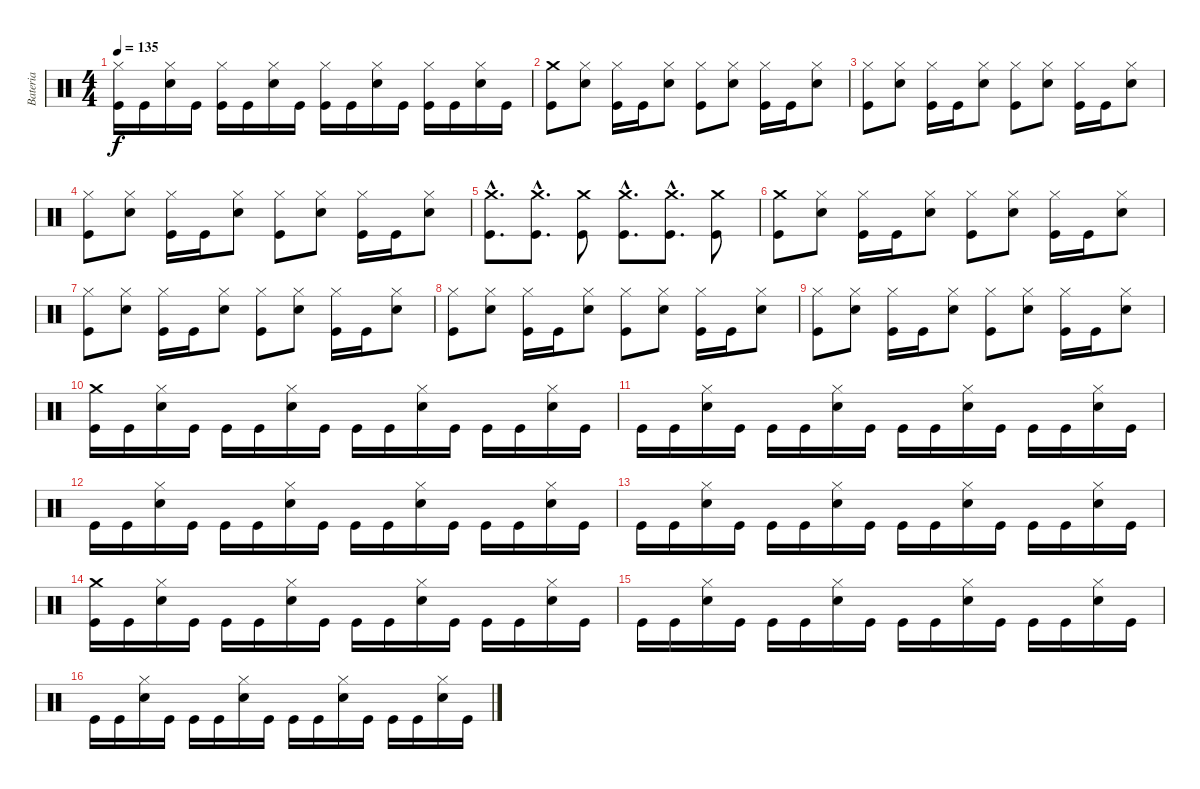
\track ("Bateria" "Bateria") {instrument percussion}
\staff {score}
\articulation defaults
\ts (4 4)
\tempo 135
\clef neutral
\ks c
("Kick (hit)" "Hi-Hat (closed)").16{dy f} "Kick (hit)".16 ("Snare (hit) 2" "Hi-Hat (closed)").16 "Kick (hit)".16 ("Kick (hit)" "Hi-Hat (closed)").16 "Kick (hit)".16 ("Snare (hit) 2" "Hi-Hat (closed)").16 "Kick (hit)".16 ("Kick (hit)" "Hi-Hat (closed)").16 "Kick (hit)".16 ("Snare (hit) 2" "Hi-Hat (closed)").16 "Kick (hit)".16 ("Kick (hit)" "Hi-Hat (closed)").16 "Kick (hit)".16 ("Snare (hit) 2" "Hi-Hat (closed)").16 "Kick (hit)".16 |
("Kick (hit)" "Crash medium (hit)").8 ("Snare (hit) 2" "Hi-Hat (closed)").8 ("Kick (hit)" "Hi-Hat (closed)").16 "Kick (hit)".16 ("Snare (hit) 2" "Hi-Hat (closed)").8 ("Kick (hit)" "Hi-Hat (closed)").8 ("Snare (hit) 2" "Hi-Hat (closed)").8 ("Kick (hit)" "Hi-Hat (closed)").16 "Kick (hit)".16 ("Snare (hit) 2" "Hi-Hat (closed)").8 |
("Kick (hit)" "Hi-Hat (closed)").8 ("Snare (hit) 2" "Hi-Hat (closed)").8 ("Kick (hit)" "Hi-Hat (closed)").16 "Kick (hit)".16 ("Snare (hit) 2" "Hi-Hat (closed)").8 ("Kick (hit)" "Hi-Hat (closed)").8 ("Snare (hit) 2" "Hi-Hat (closed)").8 ("Kick (hit)" "Hi-Hat (closed)").16 "Kick (hit)".16 ("Snare (hit) 2" "Hi-Hat (closed)").8 |
("Kick (hit)" "Hi-Hat (closed)").8 ("Snare (hit) 2" "Hi-Hat (closed)").8 ("Kick (hit)" "Hi-Hat (closed)").16 "Kick (hit)".16 ("Snare (hit) 2" "Hi-Hat (closed)").8 ("Kick (hit)" "Hi-Hat (closed)").8 ("Snare (hit) 2" "Hi-Hat (closed)").8 ("Kick (hit)" "Hi-Hat (closed)").16 "Kick (hit)".16 ("Snare (hit) 2" "Hi-Hat (closed)").8 |
("Kick (hit)"{hac} "Crash medium (hit)"{hac}).8{d} ("Kick (hit)"{hac} "Crash medium (hit)"{hac}).8{d} ("Kick (hit)" "Crash medium (hit)").8 ("Kick (hit)"{hac} "Crash medium (hit)"{hac}).8{d} ("Kick (hit)"{hac} "Crash medium (hit)"{hac}).8{d} ("Kick (hit)" "Crash medium (hit)").8 |
("Kick (hit)" "Crash medium (hit)").8 ("Snare (hit) 2" "Hi-Hat (closed)").8 ("Kick (hit)" "Hi-Hat (closed)").16 "Kick (hit)".16 ("Snare (hit) 2" "Hi-Hat (closed)").8 ("Kick (hit)" "Hi-Hat (closed)").8 ("Snare (hit) 2" "Hi-Hat (closed)").8 ("Kick (hit)" "Hi-Hat (closed)").16 "Kick (hit)".16 ("Snare (hit) 2" "Hi-Hat (closed)").8 |
("Kick (hit)" "Hi-Hat (closed)").8 ("Snare (hit) 2" "Hi-Hat (closed)").8 ("Kick (hit)" "Hi-Hat (closed)").16 "Kick (hit)".16 ("Snare (hit) 2" "Hi-Hat (closed)").8 ("Kick (hit)" "Hi-Hat (closed)").8 ("Snare (hit) 2" "Hi-Hat (closed)").8 ("Kick (hit)" "Hi-Hat (closed)").16 "Kick (hit)".16 ("Snare (hit) 2" "Hi-Hat (closed)").8 |
("Kick (hit)" "Hi-Hat (closed)").8 ("Snare (hit) 2" "Hi-Hat (closed)").8 ("Kick (hit)" "Hi-Hat (closed)").16 "Kick (hit)".16 ("Snare (hit) 2" "Hi-Hat (closed)").8 ("Kick (hit)" "Hi-Hat (closed)").8 ("Snare (hit) 2" "Hi-Hat (closed)").8 ("Kick (hit)" "Hi-Hat (closed)").16 "Kick (hit)".16 ("Snare (hit) 2" "Hi-Hat (closed)").8 |
("Kick (hit)" "Hi-Hat (closed)").8 ("Snare (hit) 2" "Hi-Hat (closed)").8 ("Kick (hit)" "Hi-Hat (closed)").16 "Kick (hit)".16 ("Snare (hit) 2" "Hi-Hat (closed)").8 ("Kick (hit)" "Hi-Hat (closed)").8 ("Snare (hit) 2" "Hi-Hat (closed)").8 ("Kick (hit)" "Hi-Hat (closed)").16 "Kick (hit)".16 ("Snare (hit) 2" "Hi-Hat (closed)").8 |
("Crash medium (hit)" "Kick (hit)").16 "Kick (hit)".16 ("Snare (hit) 2" "Hi-Hat (closed)").16 "Kick (hit)".16 "Kick (hit)".16 "Kick (hit)".16 ("Snare (hit) 2" "Hi-Hat (closed)").16 "Kick (hit)".16 "Kick (hit)".16 "Kick (hit)".16 ("Snare (hit) 2" "Hi-Hat (closed)").16 "Kick (hit)".16 "Kick (hit)".16 "Kick (hit)".16 ("Snare (hit) 2" "Hi-Hat (closed)").16 "Kick (hit)".16 |
"Kick (hit)".16 "Kick (hit)".16 ("Snare (hit) 2" "Hi-Hat (closed)").16 "Kick (hit)".16 "Kick (hit)".16 "Kick (hit)".16 ("Snare (hit) 2" "Hi-Hat (closed)").16 "Kick (hit)".16 "Kick (hit)".16 "Kick (hit)".16 ("Snare (hit) 2" "Hi-Hat (closed)").16 "Kick (hit)".16 "Kick (hit)".16 "Kick (hit)".16 ("Snare (hit) 2" "Hi-Hat (closed)").16 "Kick (hit)".16 |
"Kick (hit)".16 "Kick (hit)".16 ("Snare (hit) 2" "Hi-Hat (closed)").16 "Kick (hit)".16 "Kick (hit)".16 "Kick (hit)".16 ("Snare (hit) 2" "Hi-Hat (closed)").16 "Kick (hit)".16 "Kick (hit)".16 "Kick (hit)".16 ("Snare (hit) 2" "Hi-Hat (closed)").16 "Kick (hit)".16 "Kick (hit)".16 "Kick (hit)".16 ("Snare (hit) 2" "Hi-Hat (closed)").16 "Kick (hit)".16 |
"Kick (hit)".16 "Kick (hit)".16 ("Snare (hit) 2" "Hi-Hat (closed)").16 "Kick (hit)".16 "Kick (hit)".16 "Kick (hit)".16 ("Snare (hit) 2" "Hi-Hat (closed)").16 "Kick (hit)".16 "Kick (hit)".16 "Kick (hit)".16 ("Snare (hit) 2" "Hi-Hat (closed)").16 "Kick (hit)".16 "Kick (hit)".16 "Kick (hit)".16 ("Snare (hit) 2" "Hi-Hat (closed)").16 "Kick (hit)".16 |
("Crash medium (hit)" "Kick (hit)").16 "Kick (hit)".16 ("Snare (hit) 2" "Hi-Hat (closed)").16 "Kick (hit)".16 "Kick (hit)".16 "Kick (hit)".16 ("Snare (hit) 2" "Hi-Hat (closed)").16 "Kick (hit)".16 "Kick (hit)".16 "Kick (hit)".16 ("Snare (hit) 2" "Hi-Hat (closed)").16 "Kick (hit)".16 "Kick (hit)".16 "Kick (hit)".16 ("Snare (hit) 2" "Hi-Hat (closed)").16 "Kick (hit)".16 |
"Kick (hit)".16 "Kick (hit)".16 ("Snare (hit) 2" "Hi-Hat (closed)").16 "Kick (hit)".16 "Kick (hit)".16 "Kick (hit)".16 ("Snare (hit) 2" "Hi-Hat (closed)").16 "Kick (hit)".16 "Kick (hit)".16 "Kick (hit)".16 ("Snare (hit) 2" "Hi-Hat (closed)").16 "Kick (hit)".16 "Kick (hit)".16 "Kick (hit)".16 ("Snare (hit) 2" "Hi-Hat (closed)").16 "Kick (hit)".16 |
"Kick (hit)".16 "Kick (hit)".16 ("Snare (hit) 2" "Hi-Hat (closed)").16 "Kick (hit)".16 "Kick (hit)".16 "Kick (hit)".16 ("Snare (hit) 2" "Hi-Hat (closed)").16 "Kick (hit)".16 "Kick (hit)".16 "Kick (hit)".16 ("Snare (hit) 2" "Hi-Hat (closed)").16 "Kick (hit)".16 "Kick (hit)".16 "Kick (hit)".16 ("Snare (hit) 2" "Hi-Hat (closed)").16 "Kick (hit)".16
